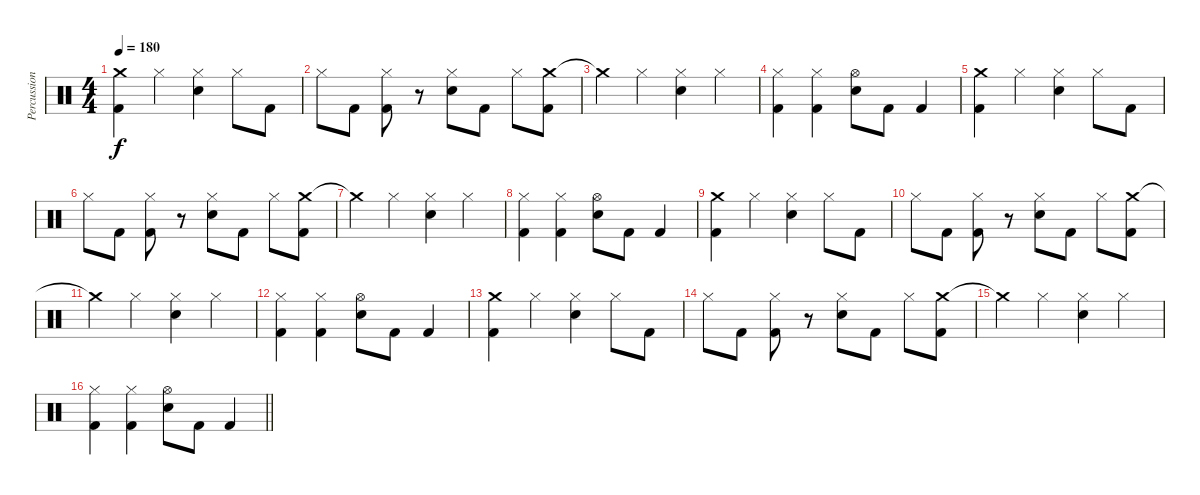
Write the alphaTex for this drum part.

\track ("Percussion" "Percussion") {instrument percussion}
\staff {score}
\articulation defaults
\ts (4 4)
\tempo 180
\clef neutral
\ks c
("Crash medium (hit)" "Kick (hit) 2").4{dy f} "Hi-Hat (closed)".4 ("Hi-Hat (closed)" "Snare (hit) 2").4 "Hi-Hat (closed)".8 "Kick (hit) 2".8 |
"Hi-Hat (closed)".8 "Kick (hit) 2".8 ("Hi-Hat (closed)" "Kick (hit) 2").8 r.8 ("Hi-Hat (closed)" "Snare (hit) 2").8 "Kick (hit) 2".8 "Hi-Hat (closed)".8 ("Crash medium (hit)" "Kick (hit) 2").8 |
"Crash medium (hit)"{t}.4 "Hi-Hat (closed)".4 ("Hi-Hat (closed)" "Snare (hit) 2").4 "Hi-Hat (closed)".4 |
("Hi-Hat (closed)" "Kick (hit) 2").4 ("Hi-Hat (closed)" "Kick (hit) 2").4 ("Hi-Hat (open)" "Snare (hit) 2").8 "Kick (hit) 2".8 "Kick (hit) 2".4 |
("Crash medium (hit)" "Kick (hit) 2").4 "Hi-Hat (closed)".4 ("Hi-Hat (closed)" "Snare (hit) 2").4 "Hi-Hat (closed)".8 "Kick (hit) 2".8 |
"Hi-Hat (closed)".8 "Kick (hit) 2".8 ("Hi-Hat (closed)" "Kick (hit) 2").8 r.8 ("Hi-Hat (closed)" "Snare (hit) 2").8 "Kick (hit) 2".8 "Hi-Hat (closed)".8 ("Crash medium (hit)" "Kick (hit) 2").8 |
"Crash medium (hit)"{t}.4 "Hi-Hat (closed)".4 ("Hi-Hat (closed)" "Snare (hit) 2").4 "Hi-Hat (closed)".4 |
("Hi-Hat (closed)" "Kick (hit) 2").4 ("Hi-Hat (closed)" "Kick (hit) 2").4 ("Hi-Hat (open)" "Snare (hit) 2").8 "Kick (hit) 2".8 "Kick (hit) 2".4 |
("Crash medium (hit)" "Kick (hit) 2").4 "Hi-Hat (closed)".4 ("Hi-Hat (closed)" "Snare (hit) 2").4 "Hi-Hat (closed)".8 "Kick (hit) 2".8 |
"Hi-Hat (closed)".8 "Kick (hit) 2".8 ("Hi-Hat (closed)" "Kick (hit) 2").8 r.8 ("Hi-Hat (closed)" "Snare (hit) 2").8 "Kick (hit) 2".8 "Hi-Hat (closed)".8 ("Crash medium (hit)" "Kick (hit) 2").8 |
"Crash medium (hit)"{t}.4 "Hi-Hat (closed)".4 ("Hi-Hat (closed)" "Snare (hit) 2").4 "Hi-Hat (closed)".4 |
("Hi-Hat (closed)" "Kick (hit) 2").4 ("Hi-Hat (closed)" "Kick (hit) 2").4 ("Hi-Hat (open)" "Snare (hit) 2").8 "Kick (hit) 2".8 "Kick (hit) 2".4 |
("Crash medium (hit)" "Kick (hit) 2").4 "Hi-Hat (closed)".4 ("Hi-Hat (closed)" "Snare (hit) 2").4 "Hi-Hat (closed)".8 "Kick (hit) 2".8 |
"Hi-Hat (closed)".8 "Kick (hit) 2".8 ("Hi-Hat (closed)" "Kick (hit) 2").8 r.8 ("Hi-Hat (closed)" "Snare (hit) 2").8 "Kick (hit) 2".8 "Hi-Hat (closed)".8 ("Crash medium (hit)" "Kick (hit) 2").8 |
"Crash medium (hit)"{t}.4 "Hi-Hat (closed)".4 ("Hi-Hat (closed)" "Snare (hit) 2").4 "Hi-Hat (closed)".4 |
\barLineRight lightlight
("Hi-Hat (closed)" "Kick (hit) 2").4 ("Hi-Hat (closed)" "Kick (hit) 2").4 ("Hi-Hat (open)" "Snare (hit) 2").8 "Kick (hit) 2".8 "Kick (hit) 2".4
